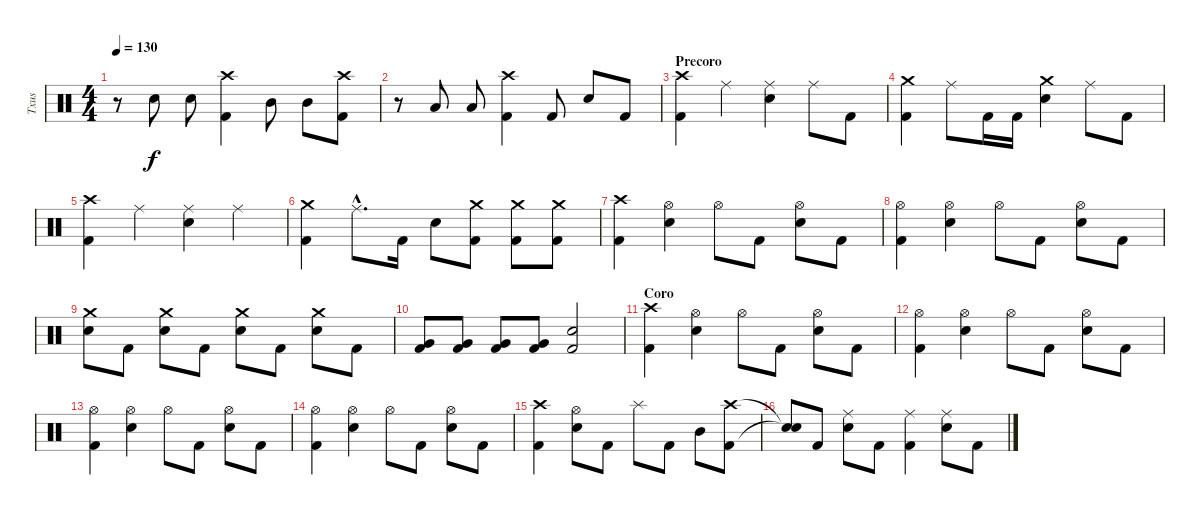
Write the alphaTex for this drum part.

\track ("Txus" "Txus") {instrument percussion}
\staff {score}
\articulation defaults
\ts (4 4)
\tempo 130
\clef neutral
\ks c
r.8{dy f} "Electric Snare (hit)".8 "Electric Snare (hit)".8 ("Kick (hit) 2" "Crash high (hit)").4 "Mid Tom (hit)".8 "Mid Tom (hit)".8 ("Kick (hit) 2" "Crash high (hit)").8 |
r.8 "Low Tom (hit)".8 "Low Tom (hit)".8 ("Kick (hit) 2" "Crash high (hit)").4 "Kick (hit) 2".8 "Electric Snare (hit)".8 "Kick (hit) 2".8 |
\section ("" "Precoro")
("Kick (hit) 2" "Crash high (hit)").4 "Ride (middle)".4 ("Electric Snare (hit)" "Ride (middle)").4 "Ride (middle)".8 "Kick (hit) 2".8 |
("Kick (hit) 2" "Crash medium (hit)").4 "Ride (middle)".8 "Kick (hit) 2".16 "Kick (hit) 2".16 ("Electric Snare (hit)" "Crash medium (hit)").4 "Ride (middle)".8 "Kick (hit) 2".8 |
("Kick (hit) 2" "Crash high (hit)").4 "Ride (middle)".4 ("Electric Snare (hit)" "Ride (middle)").4 "Ride (middle)".4 |
("Kick (hit) 2" "Crash medium (hit)").4 "Ride (middle)"{hac}.8{d} "Kick (hit) 2".16 "Electric Snare (hit)".8 ("Kick (hit) 2" "Crash medium (hit)").8 ("Kick (hit) 2" "Crash medium (hit)").8 ("Kick (hit) 2" "Crash medium (hit)").8 |
("Kick (hit) 2" "Crash high (hit)").4 ("Electric Snare (hit)" "Hi-Hat (open)").4 "Hi-Hat (open)".8 "Kick (hit) 2".8 ("Electric Snare (hit)" "Hi-Hat (open)").8 "Kick (hit) 2".8 |
("Kick (hit) 2" "Hi-Hat (open)").4 ("Electric Snare (hit)" "Hi-Hat (open)").4 "Hi-Hat (open)".8 "Kick (hit) 2".8 ("Electric Snare (hit)" "Hi-Hat (open)").8 "Kick (hit) 2".8 |
("Electric Snare (hit)" "Crash medium (hit)").8 "Kick (hit) 2".8 ("Electric Snare (hit)" "Crash medium (hit)").8 "Kick (hit) 2".8 ("Electric Snare (hit)" "Crash medium (hit)").8 "Kick (hit) 2".8 ("Electric Snare (hit)" "Crash medium (hit)").8 "Kick (hit) 2".8 |
("Kick (hit) 2" "Very Low Tom (hit)").8 ("Kick (hit) 2" "Very Low Tom (hit)").8 ("Kick (hit) 2" "Very Low Tom (hit)").8 ("Kick (hit) 2" "Very Low Tom (hit)").8 ("Kick (hit) 2" "Electric Snare (hit)").2 |
\section ("" "Coro")
("Kick (hit) 2" "Crash high (hit)").4 ("Electric Snare (hit)" "Hi-Hat (open)").4 "Hi-Hat (open)".8 "Kick (hit) 2".8 ("Electric Snare (hit)" "Hi-Hat (open)").8 "Kick (hit) 2".8 |
("Kick (hit) 2" "Hi-Hat (open)").4 ("Electric Snare (hit)" "Hi-Hat (open)").4 "Hi-Hat (open)".8 "Kick (hit) 2".8 ("Electric Snare (hit)" "Hi-Hat (open)").8 "Kick (hit) 2".8 |
("Kick (hit) 2" "Hi-Hat (open)").4 ("Electric Snare (hit)" "Hi-Hat (open)").4 "Hi-Hat (open)".8 "Kick (hit) 2".8 ("Electric Snare (hit)" "Hi-Hat (open)").8 "Kick (hit) 2".8 |
("Kick (hit) 2" "Hi-Hat (open)").4 ("Electric Snare (hit)" "Hi-Hat (open)").4 "Hi-Hat (open)".8 "Kick (hit) 2".8 ("Electric Snare (hit)" "Hi-Hat (open)").8 "Kick (hit) 2".8 |
("Kick (hit) 2" "Crash high (hit)").4 ("Electric Snare (hit)" "Hi-Hat (open)").8 "Kick (hit) 2".8 "Splash (hit)".8 "Kick (hit) 2".8 "Mid Tom (hit)".8 ("Kick (hit) 2" "Crash high (hit)").8 |
("Snare (hit)"{t} "Snare (hit)"{t}).8 "Kick (hit) 2".8 ("Electric Snare (hit)" "Ride (middle)").8 "Kick (hit) 2".8 ("Kick (hit) 2" "Ride (middle)").4 ("Electric Snare (hit)" "Ride (middle)").8 "Kick (hit) 2".8
